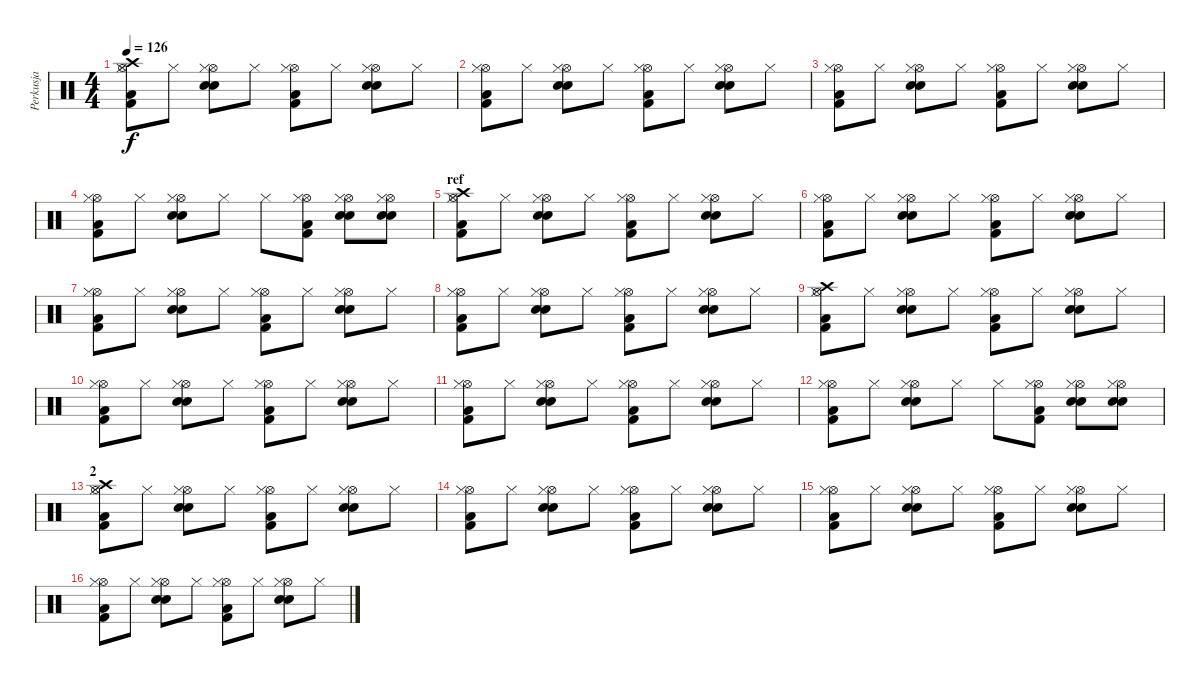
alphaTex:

\track ("Perkusja" "Perkusja") {instrument percussion}
\staff {score}
\articulation defaults
\ts (4 4)
\tempo 126
\clef neutral
\ks c
("Hi-Hat (open)" "Kick (hit) 2" "Crash high (hit)" "Hi-Hat (closed)" "Low Tom (hit)").8{dy f} "Hi-Hat (closed)".8 ("Hi-Hat (open)" "Snare (hit) 2" "Hi-Hat (closed)" "Electric Snare (hit)").8 "Hi-Hat (closed)".8 ("Hi-Hat (open)" "Kick (hit) 2" "Hi-Hat (closed)" "Low Tom (hit)").8 "Hi-Hat (closed)".8 ("Hi-Hat (open)" "Snare (hit) 2" "Hi-Hat (closed)" "Electric Snare (hit)").8 "Hi-Hat (closed)".8 |
("Hi-Hat (open)" "Kick (hit) 2" "Hi-Hat (closed)" "Low Tom (hit)").8 "Hi-Hat (closed)".8 ("Hi-Hat (open)" "Snare (hit) 2" "Hi-Hat (closed)" "Electric Snare (hit)").8 "Hi-Hat (closed)".8 ("Hi-Hat (open)" "Kick (hit) 2" "Hi-Hat (closed)" "Low Tom (hit)").8 "Hi-Hat (closed)".8 ("Hi-Hat (open)" "Snare (hit) 2" "Hi-Hat (closed)" "Electric Snare (hit)").8 "Hi-Hat (closed)".8 |
("Hi-Hat (open)" "Kick (hit) 2" "Hi-Hat (closed)" "Low Tom (hit)").8 "Hi-Hat (closed)".8 ("Hi-Hat (open)" "Snare (hit) 2" "Hi-Hat (closed)" "Electric Snare (hit)").8 "Hi-Hat (closed)".8 ("Hi-Hat (open)" "Kick (hit) 2" "Hi-Hat (closed)" "Low Tom (hit)").8 "Hi-Hat (closed)".8 ("Hi-Hat (open)" "Snare (hit) 2" "Hi-Hat (closed)" "Electric Snare (hit)").8 "Hi-Hat (closed)".8 |
("Hi-Hat (open)" "Kick (hit) 2" "Hi-Hat (closed)" "Low Tom (hit)").8 "Hi-Hat (closed)".8 ("Hi-Hat (open)" "Snare (hit) 2" "Hi-Hat (closed)" "Electric Snare (hit)").8 "Hi-Hat (closed)".8 "Hi-Hat (closed)".8 ("Hi-Hat (open)" "Kick (hit) 2" "Hi-Hat (closed)" "Low Tom (hit)").8 ("Hi-Hat (open)" "Snare (hit) 2" "Hi-Hat (closed)" "Electric Snare (hit)").8 ("Hi-Hat (open)" "Snare (hit) 2" "Hi-Hat (closed)" "Electric Snare (hit)").8 |
\section ("" "ref")
("Hi-Hat (open)" "Kick (hit) 2" "Crash high (hit)" "Hi-Hat (closed)" "Low Tom (hit)").8 "Hi-Hat (closed)".8 ("Hi-Hat (open)" "Snare (hit) 2" "Hi-Hat (closed)" "Electric Snare (hit)").8 "Hi-Hat (closed)".8 ("Hi-Hat (open)" "Kick (hit) 2" "Hi-Hat (closed)" "Low Tom (hit)").8 "Hi-Hat (closed)".8 ("Hi-Hat (open)" "Snare (hit) 2" "Hi-Hat (closed)" "Electric Snare (hit)").8 "Hi-Hat (closed)".8 |
("Hi-Hat (open)" "Kick (hit) 2" "Hi-Hat (closed)" "Low Tom (hit)").8 "Hi-Hat (closed)".8 ("Hi-Hat (open)" "Snare (hit) 2" "Hi-Hat (closed)" "Electric Snare (hit)").8 "Hi-Hat (closed)".8 ("Hi-Hat (open)" "Kick (hit) 2" "Hi-Hat (closed)" "Low Tom (hit)").8 "Hi-Hat (closed)".8 ("Hi-Hat (open)" "Snare (hit) 2" "Hi-Hat (closed)" "Electric Snare (hit)").8 "Hi-Hat (closed)".8 |
("Hi-Hat (open)" "Kick (hit) 2" "Hi-Hat (closed)" "Low Tom (hit)").8 "Hi-Hat (closed)".8 ("Hi-Hat (open)" "Snare (hit) 2" "Hi-Hat (closed)" "Electric Snare (hit)").8 "Hi-Hat (closed)".8 ("Hi-Hat (open)" "Kick (hit) 2" "Hi-Hat (closed)" "Low Tom (hit)").8 "Hi-Hat (closed)".8 ("Hi-Hat (open)" "Snare (hit) 2" "Hi-Hat (closed)" "Electric Snare (hit)").8 "Hi-Hat (closed)".8 |
("Hi-Hat (open)" "Kick (hit) 2" "Hi-Hat (closed)" "Low Tom (hit)").8 "Hi-Hat (closed)".8 ("Hi-Hat (open)" "Snare (hit) 2" "Hi-Hat (closed)" "Electric Snare (hit)").8 "Hi-Hat (closed)".8 ("Hi-Hat (open)" "Kick (hit) 2" "Hi-Hat (closed)" "Low Tom (hit)").8 "Hi-Hat (closed)".8 ("Hi-Hat (open)" "Snare (hit) 2" "Hi-Hat (closed)" "Electric Snare (hit)").8 "Hi-Hat (closed)".8 |
("Hi-Hat (open)" "Kick (hit) 2" "Crash high (hit)" "Hi-Hat (closed)" "Low Tom (hit)").8 "Hi-Hat (closed)".8 ("Hi-Hat (open)" "Snare (hit) 2" "Hi-Hat (closed)" "Electric Snare (hit)").8 "Hi-Hat (closed)".8 ("Hi-Hat (open)" "Kick (hit) 2" "Hi-Hat (closed)" "Low Tom (hit)").8 "Hi-Hat (closed)".8 ("Hi-Hat (open)" "Snare (hit) 2" "Hi-Hat (closed)" "Electric Snare (hit)").8 "Hi-Hat (closed)".8 |
("Hi-Hat (open)" "Kick (hit) 2" "Hi-Hat (closed)" "Low Tom (hit)").8 "Hi-Hat (closed)".8 ("Hi-Hat (open)" "Snare (hit) 2" "Hi-Hat (closed)" "Electric Snare (hit)").8 "Hi-Hat (closed)".8 ("Hi-Hat (open)" "Kick (hit) 2" "Hi-Hat (closed)" "Low Tom (hit)").8 "Hi-Hat (closed)".8 ("Hi-Hat (open)" "Snare (hit) 2" "Hi-Hat (closed)" "Electric Snare (hit)").8 "Hi-Hat (closed)".8 |
("Hi-Hat (open)" "Kick (hit) 2" "Hi-Hat (closed)" "Low Tom (hit)").8 "Hi-Hat (closed)".8 ("Hi-Hat (open)" "Snare (hit) 2" "Hi-Hat (closed)" "Electric Snare (hit)").8 "Hi-Hat (closed)".8 ("Hi-Hat (open)" "Kick (hit) 2" "Hi-Hat (closed)" "Low Tom (hit)").8 "Hi-Hat (closed)".8 ("Hi-Hat (open)" "Snare (hit) 2" "Hi-Hat (closed)" "Electric Snare (hit)").8 "Hi-Hat (closed)".8 |
("Hi-Hat (open)" "Kick (hit) 2" "Hi-Hat (closed)" "Low Tom (hit)").8 "Hi-Hat (closed)".8 ("Hi-Hat (open)" "Snare (hit) 2" "Hi-Hat (closed)" "Electric Snare (hit)").8 "Hi-Hat (closed)".8 "Hi-Hat (closed)".8 ("Hi-Hat (open)" "Kick (hit) 2" "Hi-Hat (closed)" "Low Tom (hit)").8 ("Hi-Hat (open)" "Snare (hit) 2" "Hi-Hat (closed)" "Electric Snare (hit)").8 ("Hi-Hat (open)" "Snare (hit) 2" "Hi-Hat (closed)" "Electric Snare (hit)").8 |
\section ("" "2")
("Hi-Hat (open)" "Kick (hit) 2" "Crash high (hit)" "Hi-Hat (closed)" "Low Tom (hit)").8 "Hi-Hat (closed)".8 ("Hi-Hat (open)" "Snare (hit) 2" "Hi-Hat (closed)" "Electric Snare (hit)").8 "Hi-Hat (closed)".8 ("Hi-Hat (open)" "Kick (hit) 2" "Hi-Hat (closed)" "Low Tom (hit)").8 "Hi-Hat (closed)".8 ("Hi-Hat (open)" "Snare (hit) 2" "Hi-Hat (closed)" "Electric Snare (hit)").8 "Hi-Hat (closed)".8 |
("Hi-Hat (open)" "Kick (hit) 2" "Hi-Hat (closed)" "Low Tom (hit)").8 "Hi-Hat (closed)".8 ("Hi-Hat (open)" "Snare (hit) 2" "Hi-Hat (closed)" "Electric Snare (hit)").8 "Hi-Hat (closed)".8 ("Hi-Hat (open)" "Kick (hit) 2" "Hi-Hat (closed)" "Low Tom (hit)").8 "Hi-Hat (closed)".8 ("Hi-Hat (open)" "Snare (hit) 2" "Hi-Hat (closed)" "Electric Snare (hit)").8 "Hi-Hat (closed)".8 |
("Hi-Hat (open)" "Kick (hit) 2" "Hi-Hat (closed)" "Low Tom (hit)").8 "Hi-Hat (closed)".8 ("Hi-Hat (open)" "Snare (hit) 2" "Hi-Hat (closed)" "Electric Snare (hit)").8 "Hi-Hat (closed)".8 ("Hi-Hat (open)" "Kick (hit) 2" "Hi-Hat (closed)" "Low Tom (hit)").8 "Hi-Hat (closed)".8 ("Hi-Hat (open)" "Snare (hit) 2" "Hi-Hat (closed)" "Electric Snare (hit)").8 "Hi-Hat (closed)".8 |
("Hi-Hat (open)" "Kick (hit) 2" "Hi-Hat (closed)" "Low Tom (hit)").8 "Hi-Hat (closed)".8 ("Hi-Hat (open)" "Snare (hit) 2" "Hi-Hat (closed)" "Electric Snare (hit)").8 "Hi-Hat (closed)".8 ("Hi-Hat (open)" "Kick (hit) 2" "Hi-Hat (closed)" "Low Tom (hit)").8 "Hi-Hat (closed)".8 ("Hi-Hat (open)" "Snare (hit) 2" "Hi-Hat (closed)" "Electric Snare (hit)").8 "Hi-Hat (closed)".8
